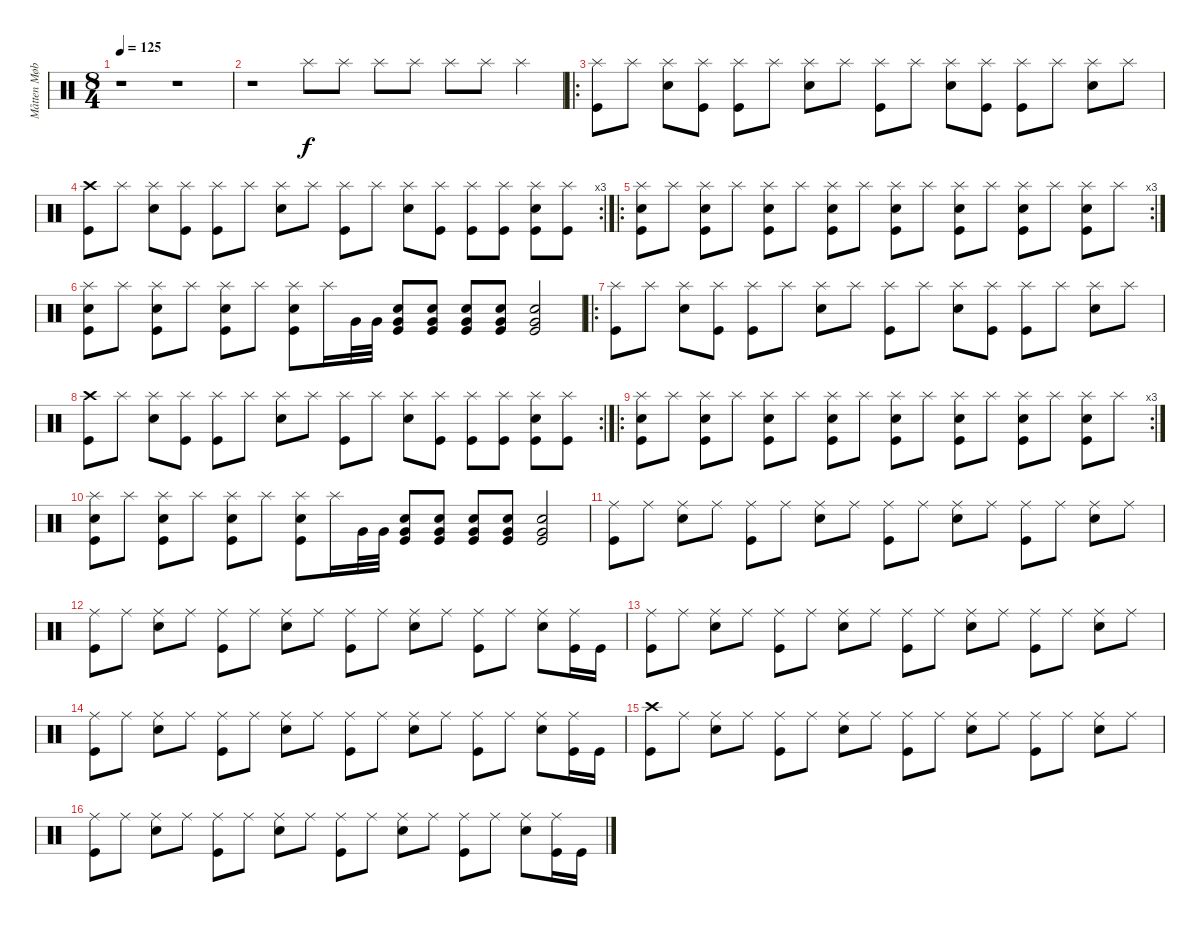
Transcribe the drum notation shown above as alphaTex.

\track ("Måtten Møbelbanker" "Måtten Møb") {instrument percussion}
\staff {score}
\articulation defaults
\ts (8 4)
\tempo 125
\clef neutral
\ks c
r.1{dy f} r.1 |
r.1 "Splash (hit)".8 "Splash (hit)".8 "Splash (hit)".8 "Splash (hit)".8 "Splash (hit)".8 "Splash (hit)".8 "Splash (hit)".4 |
\ro
("Splash (hit)" "Kick (hit)").8 "Splash (hit)".8 ("Splash (hit)" "Snare (hit) 2").8 ("Splash (hit)" "Kick (hit)").8 ("Splash (hit)" "Kick (hit)").8 "Splash (hit)".8 ("Splash (hit)" "Snare (hit) 2").8 "Splash (hit)".8 ("Splash (hit)" "Kick (hit)").8 "Splash (hit)".8 ("Splash (hit)" "Snare (hit) 2").8 ("Splash (hit)" "Kick (hit)").8 ("Splash (hit)" "Kick (hit)").8 "Splash (hit)".8 ("Splash (hit)" "Snare (hit) 2").8 "Splash (hit)".8 |
\rc 3
("Crash high (hit)" "Kick (hit)").8 "Splash (hit)".8 ("Splash (hit)" "Snare (hit) 2").8 ("Splash (hit)" "Kick (hit)").8 ("Splash (hit)" "Kick (hit)").8 "Splash (hit)".8 ("Splash (hit)" "Snare (hit) 2").8 "Splash (hit)".8 ("Splash (hit)" "Kick (hit)").8 "Splash (hit)".8 ("Splash (hit)" "Snare (hit) 2").8 ("Splash (hit)" "Kick (hit)").8 ("Splash (hit)" "Kick (hit)").8 ("Splash (hit)" "Kick (hit)").8 ("Splash (hit)" "Snare (hit) 2" "Kick (hit)").8 ("Splash (hit)" "Kick (hit)").8 |
\ro
\rc 3
("Splash (hit)" "Snare (hit) 2" "Kick (hit)").8 "Splash (hit)".8 ("Splash (hit)" "Snare (hit) 2" "Kick (hit)").8 "Splash (hit)".8 ("Splash (hit)" "Snare (hit) 2" "Kick (hit)").8 "Splash (hit)".8 ("Splash (hit)" "Snare (hit) 2" "Kick (hit)").8 "Splash (hit)".8 ("Splash (hit)" "Snare (hit) 2" "Kick (hit)").8 "Splash (hit)".8 ("Splash (hit)" "Snare (hit) 2" "Kick (hit)").8 "Splash (hit)".8 ("Splash (hit)" "Snare (hit) 2" "Kick (hit)").8 "Splash (hit)".8 ("Splash (hit)" "Snare (hit) 2" "Kick (hit)").8 "Splash (hit)".8 |
("Splash (hit)" "Snare (hit) 2" "Kick (hit)").8 "Splash (hit)".8 ("Splash (hit)" "Snare (hit) 2" "Kick (hit)").8 "Splash (hit)".8 ("Splash (hit)" "Snare (hit) 2" "Kick (hit)").8 "Splash (hit)".8 ("Splash (hit)" "Snare (hit) 2" "Kick (hit)").8 "Splash (hit)".16 "Very Low Tom (hit)".32 "Very Low Tom (hit)".32 ("Very Low Tom (hit)" "Snare (hit) 2" "Kick (hit)").8 ("Very Low Tom (hit)" "Snare (hit) 2" "Kick (hit)").8 ("Very Low Tom (hit)" "Snare (hit) 2" "Kick (hit)").8 ("Very Low Tom (hit)" "Snare (hit) 2" "Kick (hit)").8 ("Very Low Tom (hit)" "Snare (hit) 2" "Kick (hit)").2 |
\ro
("Splash (hit)" "Kick (hit)").8 "Splash (hit)".8 ("Splash (hit)" "Snare (hit) 2").8 ("Splash (hit)" "Kick (hit)").8 ("Splash (hit)" "Kick (hit)").8 "Splash (hit)".8 ("Splash (hit)" "Snare (hit) 2").8 "Splash (hit)".8 ("Splash (hit)" "Kick (hit)").8 "Splash (hit)".8 ("Splash (hit)" "Snare (hit) 2").8 ("Splash (hit)" "Kick (hit)").8 ("Splash (hit)" "Kick (hit)").8 "Splash (hit)".8 ("Splash (hit)" "Snare (hit) 2").8 "Splash (hit)".8 |
\rc 2
("Crash high (hit)" "Kick (hit)").8 "Splash (hit)".8 ("Splash (hit)" "Snare (hit) 2").8 ("Splash (hit)" "Kick (hit)").8 ("Splash (hit)" "Kick (hit)").8 "Splash (hit)".8 ("Splash (hit)" "Snare (hit) 2").8 "Splash (hit)".8 ("Splash (hit)" "Kick (hit)").8 "Splash (hit)".8 ("Splash (hit)" "Snare (hit) 2").8 ("Splash (hit)" "Kick (hit)").8 ("Splash (hit)" "Kick (hit)").8 ("Splash (hit)" "Kick (hit)").8 ("Splash (hit)" "Snare (hit) 2" "Kick (hit)").8 ("Splash (hit)" "Kick (hit)").8 |
\ro
\rc 3
("Splash (hit)" "Snare (hit) 2" "Kick (hit)").8 "Splash (hit)".8 ("Splash (hit)" "Snare (hit) 2" "Kick (hit)").8 "Splash (hit)".8 ("Splash (hit)" "Snare (hit) 2" "Kick (hit)").8 "Splash (hit)".8 ("Splash (hit)" "Snare (hit) 2" "Kick (hit)").8 "Splash (hit)".8 ("Splash (hit)" "Snare (hit) 2" "Kick (hit)").8 "Splash (hit)".8 ("Splash (hit)" "Snare (hit) 2" "Kick (hit)").8 "Splash (hit)".8 ("Splash (hit)" "Snare (hit) 2" "Kick (hit)").8 "Splash (hit)".8 ("Splash (hit)" "Snare (hit) 2" "Kick (hit)").8 "Splash (hit)".8 |
("Splash (hit)" "Snare (hit) 2" "Kick (hit)").8 "Splash (hit)".8 ("Splash (hit)" "Snare (hit) 2" "Kick (hit)").8 "Splash (hit)".8 ("Splash (hit)" "Snare (hit) 2" "Kick (hit)").8 "Splash (hit)".8 ("Splash (hit)" "Snare (hit) 2" "Kick (hit)").8 "Splash (hit)".16 "Very Low Tom (hit)".32 "Very Low Tom (hit)".32 ("Very Low Tom (hit)" "Snare (hit) 2" "Kick (hit)").8 ("Very Low Tom (hit)" "Snare (hit) 2" "Kick (hit)").8 ("Very Low Tom (hit)" "Snare (hit) 2" "Kick (hit)").8 ("Very Low Tom (hit)" "Snare (hit) 2" "Kick (hit)").8 ("Very Low Tom (hit)" "Snare (hit) 2" "Kick (hit)").2 |
("Ride (middle)" "Kick (hit)").8 "Ride (middle)".8 ("Ride (middle)" "Snare (hit) 2").8 "Ride (middle)".8 ("Ride (middle)" "Kick (hit)").8 "Ride (middle)".8 ("Ride (middle)" "Snare (hit) 2").8 "Ride (middle)".8 ("Ride (middle)" "Kick (hit)").8 "Ride (middle)".8 ("Ride (middle)" "Snare (hit) 2").8 "Ride (middle)".8 ("Ride (middle)" "Kick (hit)").8 "Ride (middle)".8 ("Ride (middle)" "Snare (hit) 2").8 "Ride (middle)".8 |
("Ride (middle)" "Kick (hit)").8 "Ride (middle)".8 ("Ride (middle)" "Snare (hit) 2").8 "Ride (middle)".8 ("Ride (middle)" "Kick (hit)").8 "Ride (middle)".8 ("Ride (middle)" "Snare (hit) 2").8 "Ride (middle)".8 ("Ride (middle)" "Kick (hit)").8 "Ride (middle)".8 ("Ride (middle)" "Snare (hit) 2").8 "Ride (middle)".8 ("Ride (middle)" "Kick (hit)").8 "Ride (middle)".8 ("Ride (middle)" "Snare (hit) 2").8 ("Ride (middle)" "Kick (hit)").16 "Kick (hit)".16 |
("Ride (middle)" "Kick (hit)").8 "Ride (middle)".8 ("Ride (middle)" "Snare (hit) 2").8 "Ride (middle)".8 ("Ride (middle)" "Kick (hit)").8 "Ride (middle)".8 ("Ride (middle)" "Snare (hit) 2").8 "Ride (middle)".8 ("Ride (middle)" "Kick (hit)").8 "Ride (middle)".8 ("Ride (middle)" "Snare (hit) 2").8 "Ride (middle)".8 ("Ride (middle)" "Kick (hit)").8 "Ride (middle)".8 ("Ride (middle)" "Snare (hit) 2").8 "Ride (middle)".8 |
("Ride (middle)" "Kick (hit)").8 "Ride (middle)".8 ("Ride (middle)" "Snare (hit) 2").8 "Ride (middle)".8 ("Ride (middle)" "Kick (hit)").8 "Ride (middle)".8 ("Ride (middle)" "Snare (hit) 2").8 "Ride (middle)".8 ("Ride (middle)" "Kick (hit)").8 "Ride (middle)".8 ("Ride (middle)" "Snare (hit) 2").8 "Ride (middle)".8 ("Ride (middle)" "Kick (hit)").8 "Ride (middle)".8 ("Ride (middle)" "Snare (hit) 2").8 ("Ride (middle)" "Kick (hit)").16 "Kick (hit)".16 |
("Crash high (hit)" "Kick (hit)").8 "Ride (middle)".8 ("Ride (middle)" "Snare (hit) 2").8 "Ride (middle)".8 ("Ride (middle)" "Kick (hit)").8 "Ride (middle)".8 ("Ride (middle)" "Snare (hit) 2").8 "Ride (middle)".8 ("Ride (middle)" "Kick (hit)").8 "Ride (middle)".8 ("Ride (middle)" "Snare (hit) 2").8 "Ride (middle)".8 ("Ride (middle)" "Kick (hit)").8 "Ride (middle)".8 ("Ride (middle)" "Snare (hit) 2").8 "Ride (middle)".8 |
("Ride (middle)" "Kick (hit)").8 "Ride (middle)".8 ("Ride (middle)" "Snare (hit) 2").8 "Ride (middle)".8 ("Ride (middle)" "Kick (hit)").8 "Ride (middle)".8 ("Ride (middle)" "Snare (hit) 2").8 "Ride (middle)".8 ("Ride (middle)" "Kick (hit)").8 "Ride (middle)".8 ("Ride (middle)" "Snare (hit) 2").8 "Ride (middle)".8 ("Ride (middle)" "Kick (hit)").8 "Ride (middle)".8 ("Ride (middle)" "Snare (hit) 2").8 ("Ride (middle)" "Kick (hit)").16 "Kick (hit)".16
